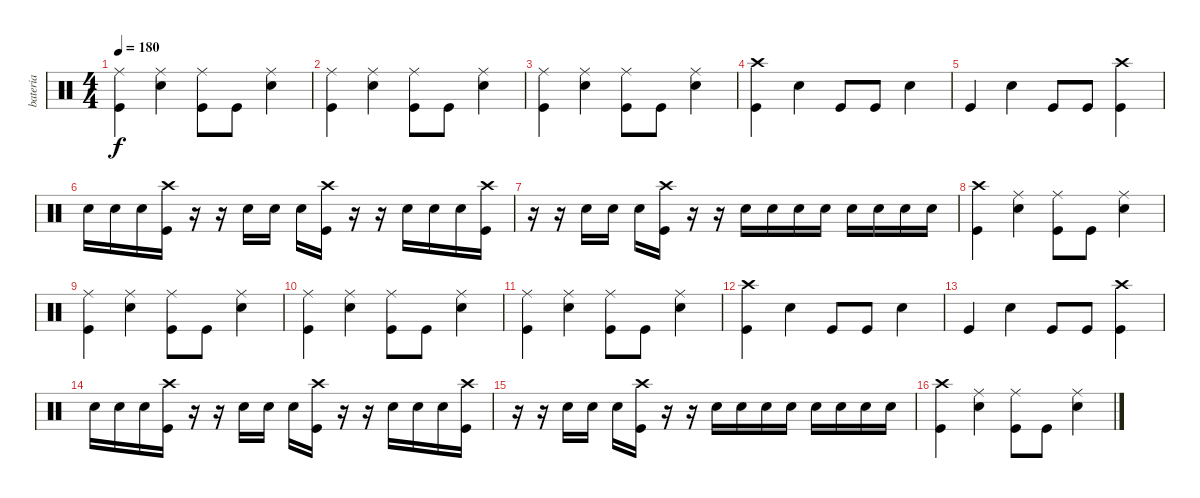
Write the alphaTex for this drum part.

\track ("bateria" "bateria") {instrument percussion}
\staff {score}
\articulation defaults
\ts (4 4)
\tempo 180
\clef neutral
\ks c
("Ride (middle)" "Kick (hit)").4{dy f} ("Ride (middle)" "Electric Snare (hit)").4 ("Ride (middle)" "Kick (hit)").8 "Kick (hit)".8 ("Ride (middle)" "Electric Snare (hit)").4 |
("Ride (middle)" "Kick (hit)").4 ("Ride (middle)" "Electric Snare (hit)").4 ("Ride (middle)" "Kick (hit)").8 "Kick (hit)".8 ("Ride (middle)" "Electric Snare (hit)").4 |
("Ride (middle)" "Kick (hit)").4 ("Ride (middle)" "Electric Snare (hit)").4 ("Ride (middle)" "Kick (hit)").8 "Kick (hit)".8 ("Ride (middle)" "Electric Snare (hit)").4 |
("Crash high (hit)" "Kick (hit)").4 "Electric Snare (hit)".4 "Kick (hit)".8 "Kick (hit)".8 "Electric Snare (hit)".4 |
"Kick (hit)".4 "Electric Snare (hit)".4 "Kick (hit)".8 "Kick (hit)".8 ("Crash high (hit)" "Kick (hit)").4 |
"Electric Snare (hit)".16 "Electric Snare (hit)".16 "Electric Snare (hit)".16 ("Crash high (hit)" "Kick (hit)").16 r.16 r.16 "Electric Snare (hit)".16 "Electric Snare (hit)".16 "Electric Snare (hit)".16 ("Crash high (hit)" "Kick (hit)").16 r.16 r.16 "Electric Snare (hit)".16 "Electric Snare (hit)".16 "Electric Snare (hit)".16 ("Crash high (hit)" "Kick (hit)").16 |
r.16 r.16 "Electric Snare (hit)".16 "Electric Snare (hit)".16 "Electric Snare (hit)".16 ("Crash high (hit)" "Kick (hit)").16 r.16 r.16 "Electric Snare (hit)".16 "Electric Snare (hit)".16 "Electric Snare (hit)".16 "Electric Snare (hit)".16 "Electric Snare (hit)".16 "Electric Snare (hit)".16 "Electric Snare (hit)".16 "Electric Snare (hit)".16 |
("Crash high (hit)" "Kick (hit)").4 ("Ride (middle)" "Electric Snare (hit)").4 ("Ride (middle)" "Kick (hit)").8 "Kick (hit)".8 ("Ride (middle)" "Electric Snare (hit)").4 |
("Ride (middle)" "Kick (hit)").4 ("Ride (middle)" "Electric Snare (hit)").4 ("Ride (middle)" "Kick (hit)").8 "Kick (hit)".8 ("Ride (middle)" "Electric Snare (hit)").4 |
("Ride (middle)" "Kick (hit)").4 ("Ride (middle)" "Electric Snare (hit)").4 ("Ride (middle)" "Kick (hit)").8 "Kick (hit)".8 ("Ride (middle)" "Electric Snare (hit)").4 |
("Ride (middle)" "Kick (hit)").4 ("Ride (middle)" "Electric Snare (hit)").4 ("Ride (middle)" "Kick (hit)").8 "Kick (hit)".8 ("Ride (middle)" "Electric Snare (hit)").4 |
("Crash high (hit)" "Kick (hit)").4 "Electric Snare (hit)".4 "Kick (hit)".8 "Kick (hit)".8 "Electric Snare (hit)".4 |
"Kick (hit)".4 "Electric Snare (hit)".4 "Kick (hit)".8 "Kick (hit)".8 ("Crash high (hit)" "Kick (hit)").4 |
"Electric Snare (hit)".16 "Electric Snare (hit)".16 "Electric Snare (hit)".16 ("Crash high (hit)" "Kick (hit)").16 r.16 r.16 "Electric Snare (hit)".16 "Electric Snare (hit)".16 "Electric Snare (hit)".16 ("Crash high (hit)" "Kick (hit)").16 r.16 r.16 "Electric Snare (hit)".16 "Electric Snare (hit)".16 "Electric Snare (hit)".16 ("Crash high (hit)" "Kick (hit)").16 |
r.16 r.16 "Electric Snare (hit)".16 "Electric Snare (hit)".16 "Electric Snare (hit)".16 ("Crash high (hit)" "Kick (hit)").16 r.16 r.16 "Electric Snare (hit)".16 "Electric Snare (hit)".16 "Electric Snare (hit)".16 "Electric Snare (hit)".16 "Electric Snare (hit)".16 "Electric Snare (hit)".16 "Electric Snare (hit)".16 "Electric Snare (hit)".16 |
("Crash high (hit)" "Kick (hit)").4 ("Ride (middle)" "Electric Snare (hit)").4 ("Ride (middle)" "Kick (hit)").8 "Kick (hit)".8 ("Ride (middle)" "Electric Snare (hit)").4
